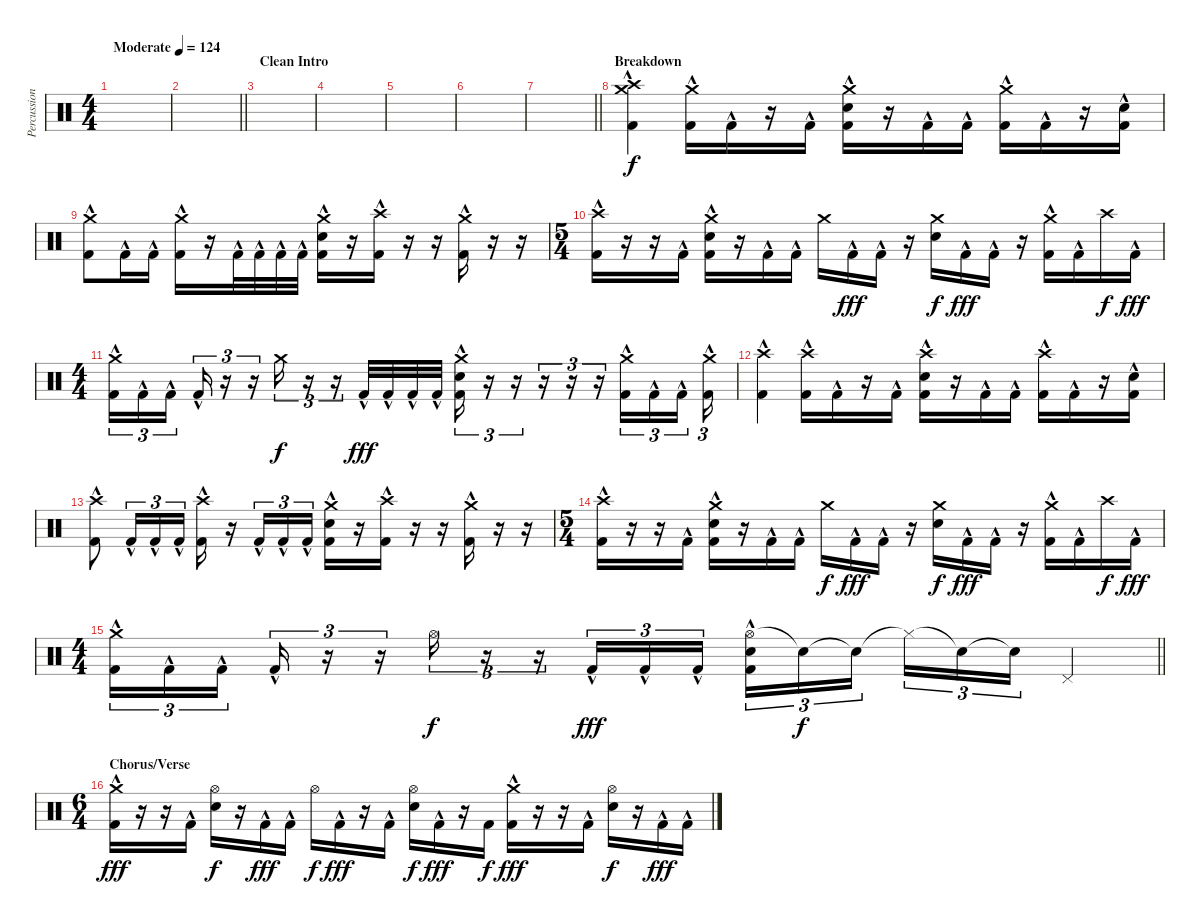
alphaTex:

\track ("Percussion" "Percussion") {instrument percussion}
\staff {score}
\articulation defaults
\ts (4 4)
\tempo (124 "Moderate")
\clef neutral
\ks c
|
\barLineRight lightlight
|
\section ("" "Clean Intro")
|
|
|
|
\barLineRight lightlight
|
\section ("" "Breakdown")
("Crash high (hit)" "Crash medium (hit)" "Kick (hit) 2"{hac}).4 ("Crash medium (hit)" "Kick (hit) 2"{hac}).16 "Kick (hit) 2"{hac}.16 r.16 "Kick (hit) 2"{hac}.16 ("Electric Snare (hit)" "Crash medium (hit)" "Kick (hit) 2"{hac}).16 r.16 "Kick (hit) 2"{hac}.16 "Kick (hit) 2"{hac}.16 ("Crash medium (hit)" "Kick (hit) 2"{hac}).16 "Kick (hit) 2"{hac}.16 r.16 ("Electric Snare (hit)" "Kick (hit) 2"{hac}).16 |
("Crash medium (hit)" "Kick (hit) 2"{hac}).8 "Kick (hit) 2"{hac}.16 "Kick (hit) 2"{hac}.16 ("Crash medium (hit)" "Kick (hit) 2"{hac}).16 r.16 "Kick (hit) 2"{hac}.32 "Kick (hit) 2"{hac}.32 "Kick (hit) 2"{hac}.32 "Kick (hit) 2"{hac}.32 ("Electric Snare (hit)" "Crash medium (hit)" "Kick (hit) 2"{hac}).16 r.16 ("Crash high (hit)" "Kick (hit) 2"{hac}).16 r.16 r.16 ("Crash medium (hit)" "Kick (hit) 2"{hac}).16 r.16 r.16 |
\ts (5 4)
("Crash high (hit)" "Kick (hit) 2"{hac}).16 r.16 r.16 "Kick (hit) 2"{hac}.16 ("Electric Snare (hit)" "Crash medium (hit)" "Kick (hit) 2"{hac}).16 r.16 "Kick (hit) 2"{hac}.16 "Kick (hit) 2"{hac}.16 "Crash medium (hit)".16{dy f} "Kick (hit) 2"{hac}.16{dy fff} "Kick (hit) 2"{hac}.16 r.16 ("Electric Snare (hit)" "Crash medium (hit)").16{dy f} "Kick (hit) 2"{hac}.16{dy fff} "Kick (hit) 2"{hac}.16 r.16 ("Crash medium (hit)" "Kick (hit) 2"{hac}).16 "Kick (hit) 2"{hac}.16 "Crash high (hit)".16{dy f} "Kick (hit) 2"{hac}.16{dy fff} |
\ts (4 4)
("Crash medium (hit)" "Kick (hit) 2"{hac}).16{tu (3 2)} "Kick (hit) 2"{hac}.16{tu (3 2)} "Kick (hit) 2"{hac}.16{tu (3 2) beam splitsecondary} "Kick (hit) 2"{hac}.16{tu (3 2)} r.16{tu (3 2)} r.16{tu (3 2)} "Crash medium (hit)".16{tu (3 2) dy f} r.16{tu (3 2)} r.16{tu (3 2)} "Kick (hit) 2"{hac}.32{dy fff} "Kick (hit) 2"{hac}.32 "Kick (hit) 2"{hac}.32 "Kick (hit) 2"{hac}.32 ("Crash medium (hit)" "Electric Snare (hit)" "Kick (hit) 2"{hac}).16{tu (3 2)} r.16{tu (3 2)} r.16{tu (3 2)} r.16{tu (3 2)} r.16{tu (3 2)} r.16{tu (3 2)} ("Crash medium (hit)" "Kick (hit) 2"{hac}).16{tu (3 2)} "Kick (hit) 2"{hac}.16{tu (3 2)} "Kick (hit) 2"{hac}.16{tu (3 2) beam splitsecondary} ("Crash medium (hit)" "Kick (hit) 2"{hac}).16{tu (3 2)} |
("Crash high (hit)" "Kick (hit) 2"{hac}).4 ("Crash high (hit)" "Kick (hit) 2"{hac}).16 "Kick (hit) 2"{hac}.16 r.16 "Kick (hit) 2"{hac}.16 ("Electric Snare (hit)" "Crash high (hit)" "Kick (hit) 2"{hac}).16 r.16 "Kick (hit) 2"{hac}.16 "Kick (hit) 2"{hac}.16 ("Crash high (hit)" "Kick (hit) 2"{hac}).16 "Kick (hit) 2"{hac}.16 r.16 ("Electric Snare (hit)" "Kick (hit) 2"{hac}).16 |
("Crash high (hit)" "Kick (hit) 2"{hac}).8 "Kick (hit) 2"{hac}.16{tu (3 2)} "Kick (hit) 2"{hac}.16{tu (3 2)} "Kick (hit) 2"{hac}.16{tu (3 2)} ("Crash high (hit)" "Kick (hit) 2"{hac}).16 r.16 "Kick (hit) 2"{hac}.16{tu (3 2)} "Kick (hit) 2"{hac}.16{tu (3 2)} "Kick (hit) 2"{hac}.16{tu (3 2)} ("Electric Snare (hit)" "Crash medium (hit)" "Kick (hit) 2"{hac}).16 r.16 ("Crash high (hit)" "Kick (hit) 2"{hac}).16 r.16 r.16 ("Crash medium (hit)" "Kick (hit) 2"{hac}).16 r.16 r.16 |
\ts (5 4)
("Crash high (hit)" "Kick (hit) 2"{hac}).16 r.16 r.16 "Kick (hit) 2"{hac}.16 ("Electric Snare (hit)" "Crash medium (hit)" "Kick (hit) 2"{hac}).16 r.16 "Kick (hit) 2"{hac}.16 "Kick (hit) 2"{hac}.16 "Crash medium (hit)".16{dy f} "Kick (hit) 2"{hac}.16{dy fff} "Kick (hit) 2"{hac}.16 r.16 ("Electric Snare (hit)" "Crash medium (hit)").16{dy f} "Kick (hit) 2"{hac}.16{dy fff} "Kick (hit) 2"{hac}.16 r.16 ("Crash medium (hit)" "Kick (hit) 2"{hac}).16 "Kick (hit) 2"{hac}.16 "Crash high (hit)".16{dy f} "Kick (hit) 2"{hac}.16{dy fff} |
\ts (4 4)
\barLineRight lightlight
("Crash medium (hit)" "Kick (hit) 2"{hac}).16{tu (3 2)} "Kick (hit) 2"{hac}.16{tu (3 2)} "Kick (hit) 2"{hac}.16{tu (3 2) beam splitsecondary} "Kick (hit) 2"{hac}.16{tu (3 2)} r.16{tu (3 2)} r.16{tu (3 2)} "Hi-Hat (open)".16{tu (3 2) dy f} r.16{tu (3 2)} r.16{tu (3 2)} "Kick (hit) 2"{hac}.16{tu (3 2) dy fff} "Kick (hit) 2"{hac}.16{tu (3 2)} "Kick (hit) 2"{hac}.16{tu (3 2)} ("Hi-Hat (open)" "Electric Snare (hit)" "Kick (hit) 2"{hac}).16{tu (3 2)} "Snare (hit)"{t}.16{tu (3 2) dy f} "Snare (hit)"{t}.16{tu (3 2) beam splitsecondary} "Hi-Hat (closed)"{t}.16{tu (3 2)} "Snare (hit)"{t}.16{tu (3 2)} "Snare (hit)"{t}.16{tu (3 2)} "Pedal Hi-Hat (hit)".4 |
\ts (6 4)
\section ("" "Chorus/Verse")
("Crash medium (hit)" "Kick (hit) 2"{hac}).16{dy fff} r.16 r.16 "Kick (hit) 2"{hac}.16 ("Electric Snare (hit)" "Hi-Hat (open)").16{dy f} r.16 "Kick (hit) 2"{hac}.16{dy fff} "Kick (hit) 2"{hac}.16 "Hi-Hat (open)".16{dy f} "Kick (hit) 2"{hac}.16{dy fff} r.16 "Kick (hit) 2"{hac}.16 ("Electric Snare (hit)" "Hi-Hat (open)").16{dy f} "Kick (hit) 2"{hac}.16{dy fff} r.16 "Kick (hit) 2".16{dy f} ("Crash medium (hit)" "Kick (hit) 2"{hac}).16{dy fff} r.16 r.16 "Kick (hit) 2"{hac}.16 ("Electric Snare (hit)" "Hi-Hat (open)").16{dy f} r.16 "Kick (hit) 2"{hac}.16{dy fff} "Kick (hit) 2"{hac}.16
